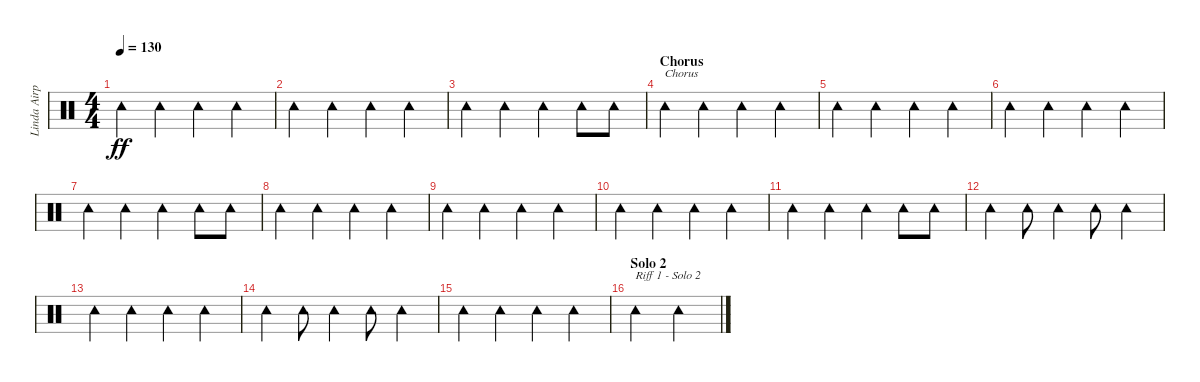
\track ("Linda Airplane" "Linda Airp") {instrument percussion}
\staff {score}
\articulation defaults
\ts (4 4)
\tempo 130
\clef neutral
\ks c "Tambourine (hit)".4{dy ff} "Tambourine (hit)".4 "Tambourine (hit)".4 "Tambourine (hit)".4
|
"Tambourine (hit)".4 "Tambourine (hit)".4 "Tambourine (hit)".4 "Tambourine (hit)".4 |
"Tambourine (hit)".4 "Tambourine (hit)".4 "Tambourine (hit)".4 "Tambourine (hit)".8 "Tambourine (hit)".8 |
\section ("" "Chorus")
"Tambourine (hit)".4{txt "Chorus"} "Tambourine (hit)".4 "Tambourine (hit)".4 "Tambourine (hit)".4 |
"Tambourine (hit)".4 "Tambourine (hit)".4 "Tambourine (hit)".4 "Tambourine (hit)".4 |
"Tambourine (hit)".4 "Tambourine (hit)".4 "Tambourine (hit)".4 "Tambourine (hit)".4 |
"Tambourine (hit)".4 "Tambourine (hit)".4 "Tambourine (hit)".4 "Tambourine (hit)".8 "Tambourine (hit)".8 |
"Tambourine (hit)".4 "Tambourine (hit)".4 "Tambourine (hit)".4 "Tambourine (hit)".4 |
"Tambourine (hit)".4 "Tambourine (hit)".4 "Tambourine (hit)".4 "Tambourine (hit)".4 |
"Tambourine (hit)".4 "Tambourine (hit)".4 "Tambourine (hit)".4 "Tambourine (hit)".4 |
"Tambourine (hit)".4 "Tambourine (hit)".4 "Tambourine (hit)".4 "Tambourine (hit)".8 "Tambourine (hit)".8 |
"Tambourine (hit)".4 "Tambourine (hit)".8 "Tambourine (hit)".4 "Tambourine (hit)".8 "Tambourine (hit)".4 |
"Tambourine (hit)".4 "Tambourine (hit)".4 "Tambourine (hit)".4 "Tambourine (hit)".4 |
"Tambourine (hit)".4 "Tambourine (hit)".8 "Tambourine (hit)".4 "Tambourine (hit)".8 "Tambourine (hit)".4 |
"Tambourine (hit)".4 "Tambourine (hit)".4 "Tambourine (hit)".4 "Tambourine (hit)".4 |
\section ("" "Solo 2")
"Tambourine (hit)".2{txt "Riff 1 - Solo 2"} "Tambourine (hit)".2
